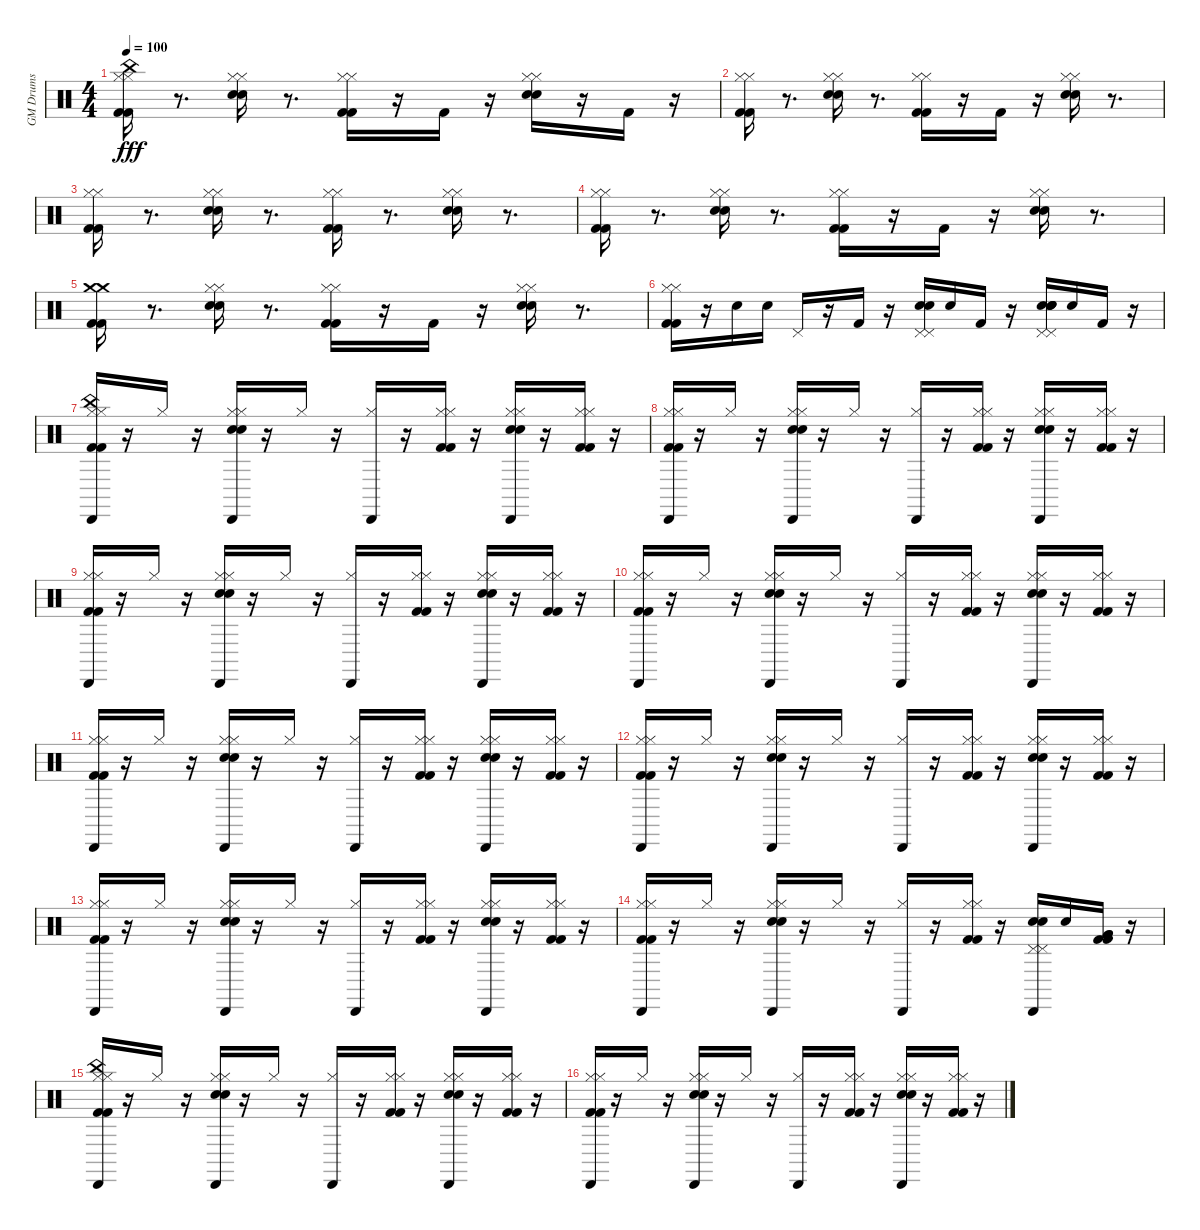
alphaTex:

\track ("GM Drums" "GM Drums") {instrument percussion}
\staff {score}
\articulation defaults
\ts (4 4)
\tempo 100
\clef neutral
\ks c
("Kick (hit) 2" "Kick (hit) 2" "Hi-Hat (closed)" "Hi-Hat (closed)" "China (hit)").16{dy fff} r.8{d} ("Snare (hit) 2" "Snare (hit) 2" "Hi-Hat (closed)" "Hi-Hat (closed)").16 r.8{d} ("Kick (hit) 2" "Kick (hit) 2" "Hi-Hat (closed)" "Hi-Hat (closed)").16 r.16 "Kick (hit) 2".16 r.16 ("Snare (hit) 2" "Snare (hit) 2" "Hi-Hat (closed)" "Hi-Hat (closed)").16 r.16 "Kick (hit) 2".16 r.16 |
("Kick (hit) 2" "Kick (hit) 2" "Hi-Hat (closed)" "Hi-Hat (closed)").16 r.8{d} ("Snare (hit) 2" "Snare (hit) 2" "Hi-Hat (closed)" "Hi-Hat (closed)").16 r.8{d} ("Kick (hit) 2" "Kick (hit) 2" "Hi-Hat (closed)" "Hi-Hat (closed)").16 r.16 "Kick (hit) 2".16 r.16 ("Snare (hit) 2" "Snare (hit) 2" "Hi-Hat (closed)" "Hi-Hat (closed)").16 r.8{d} |
("Kick (hit) 2" "Kick (hit) 2" "Hi-Hat (closed)" "Hi-Hat (closed)").16 r.8{d} ("Snare (hit) 2" "Snare (hit) 2" "Hi-Hat (closed)" "Hi-Hat (closed)").16 r.8{d} ("Kick (hit) 2" "Kick (hit) 2" "Hi-Hat (closed)" "Hi-Hat (closed)").16 r.8{d} ("Snare (hit) 2" "Snare (hit) 2" "Hi-Hat (closed)" "Hi-Hat (closed)").16 r.8{d} |
("Kick (hit) 2" "Kick (hit) 2" "Hi-Hat (closed)" "Hi-Hat (closed)").16 r.8{d} ("Snare (hit) 2" "Snare (hit) 2" "Hi-Hat (closed)" "Hi-Hat (closed)").16 r.8{d} ("Kick (hit) 2" "Kick (hit) 2" "Hi-Hat (closed)" "Hi-Hat (closed)").16 r.16 "Kick (hit) 2".16 r.16 ("Snare (hit) 2" "Snare (hit) 2" "Hi-Hat (closed)" "Hi-Hat (closed)").16 r.8{d} |
("Kick (hit) 2" "Kick (hit) 2" "Crash medium (hit)" "Crash medium (hit)").16 r.8{d} ("Snare (hit) 2" "Snare (hit) 2" "Hi-Hat (closed)" "Hi-Hat (closed)").16 r.8{d} ("Kick (hit) 2" "Kick (hit) 2" "Hi-Hat (closed)" "Hi-Hat (closed)").16 r.16 "Kick (hit) 2".16 r.16 ("Snare (hit) 2" "Snare (hit) 2" "Hi-Hat (closed)" "Hi-Hat (closed)").16 r.8{d} |
("Kick (hit) 2" "Kick (hit) 2" "Hi-Hat (closed)" "Hi-Hat (closed)").16 r.16 "Snare (hit) 2".16 "Snare (hit) 2".16 "Pedal Hi-Hat (hit)".16 r.16 "Kick (hit) 2".16 r.16 ("Snare (hit) 2" "Snare (hit) 2" "Pedal Hi-Hat (hit)" "Pedal Hi-Hat (hit)").16 "Snare (hit) 2".16 "Kick (hit) 2".16 r.16 ("Metronome (bell)" "Metronome (bell)" "Snare (hit) 2" "Snare (hit) 2" "Pedal Hi-Hat (hit)" "Pedal Hi-Hat (hit)").16 "Snare (hit) 2".16 "Kick (hit) 2".16 r.16 |
("Kick (hit) 2" "Kick (hit) 2" "Hi-Hat (closed)" "Hi-Hat (closed)" "China (hit)" "Cabasa (hit)").16 r.16 "Hi-Hat (closed)".16 r.16 ("Snare (hit) 2" "Snare (hit) 2" "Hi-Hat (closed)" "Hi-Hat (closed)" "Cabasa (hit)").16 r.16 "Hi-Hat (closed)".16 r.16 ("Hi-Hat (closed)" "Cabasa (hit)").16 r.16 ("Kick (hit) 2" "Kick (hit) 2" "Hi-Hat (closed)" "Hi-Hat (closed)").16 r.16 ("Snare (hit) 2" "Snare (hit) 2" "Hi-Hat (closed)" "Hi-Hat (closed)" "Cabasa (hit)").16 r.16 ("Kick (hit) 2" "Kick (hit) 2" "Hi-Hat (closed)" "Hi-Hat (closed)").16 r.16 |
("Kick (hit) 2" "Kick (hit) 2" "Hi-Hat (closed)" "Hi-Hat (closed)" "Cabasa (hit)").16 r.16 "Hi-Hat (closed)".16 r.16 ("Snare (hit) 2" "Snare (hit) 2" "Hi-Hat (closed)" "Hi-Hat (closed)" "Cabasa (hit)").16 r.16 "Hi-Hat (closed)".16 r.16 ("Hi-Hat (closed)" "Cabasa (hit)").16 r.16 ("Kick (hit) 2" "Kick (hit) 2" "Hi-Hat (closed)" "Hi-Hat (closed)").16 r.16 ("Snare (hit) 2" "Snare (hit) 2" "Hi-Hat (closed)" "Hi-Hat (closed)" "Cabasa (hit)").16 r.16 ("Kick (hit) 2" "Kick (hit) 2" "Hi-Hat (closed)" "Hi-Hat (closed)").16 r.16 |
("Kick (hit) 2" "Kick (hit) 2" "Hi-Hat (closed)" "Hi-Hat (closed)" "Cabasa (hit)").16 r.16 "Hi-Hat (closed)".16 r.16 ("Snare (hit) 2" "Snare (hit) 2" "Hi-Hat (closed)" "Hi-Hat (closed)" "Cabasa (hit)").16 r.16 "Hi-Hat (closed)".16 r.16 ("Hi-Hat (closed)" "Cabasa (hit)").16 r.16 ("Kick (hit) 2" "Kick (hit) 2" "Hi-Hat (closed)" "Hi-Hat (closed)").16 r.16 ("Snare (hit) 2" "Snare (hit) 2" "Hi-Hat (closed)" "Hi-Hat (closed)" "Cabasa (hit)").16 r.16 ("Kick (hit) 2" "Kick (hit) 2" "Hi-Hat (closed)" "Hi-Hat (closed)").16 r.16 |
("Kick (hit) 2" "Kick (hit) 2" "Hi-Hat (closed)" "Hi-Hat (closed)" "Cabasa (hit)").16 r.16 "Hi-Hat (closed)".16 r.16 ("Snare (hit) 2" "Snare (hit) 2" "Hi-Hat (closed)" "Hi-Hat (closed)" "Cabasa (hit)").16 r.16 "Hi-Hat (closed)".16 r.16 ("Hi-Hat (closed)" "Cabasa (hit)").16 r.16 ("Kick (hit) 2" "Kick (hit) 2" "Hi-Hat (closed)" "Hi-Hat (closed)").16 r.16 ("Snare (hit) 2" "Snare (hit) 2" "Hi-Hat (closed)" "Hi-Hat (closed)" "Cabasa (hit)").16 r.16 ("Kick (hit) 2" "Kick (hit) 2" "Hi-Hat (closed)" "Hi-Hat (closed)").16 r.16 |
("Kick (hit) 2" "Kick (hit) 2" "Hi-Hat (closed)" "Hi-Hat (closed)" "Cabasa (hit)").16 r.16 "Hi-Hat (closed)".16 r.16 ("Snare (hit) 2" "Snare (hit) 2" "Hi-Hat (closed)" "Hi-Hat (closed)" "Cabasa (hit)").16 r.16 "Hi-Hat (closed)".16 r.16 ("Hi-Hat (closed)" "Cabasa (hit)").16 r.16 ("Kick (hit) 2" "Kick (hit) 2" "Hi-Hat (closed)" "Hi-Hat (closed)").16 r.16 ("Snare (hit) 2" "Snare (hit) 2" "Hi-Hat (closed)" "Hi-Hat (closed)" "Cabasa (hit)").16 r.16 ("Kick (hit) 2" "Kick (hit) 2" "Hi-Hat (closed)" "Hi-Hat (closed)").16 r.16 |
("Kick (hit) 2" "Kick (hit) 2" "Hi-Hat (closed)" "Hi-Hat (closed)" "Cabasa (hit)").16 r.16 "Hi-Hat (closed)".16 r.16 ("Snare (hit) 2" "Snare (hit) 2" "Hi-Hat (closed)" "Hi-Hat (closed)" "Cabasa (hit)").16 r.16 "Hi-Hat (closed)".16 r.16 ("Hi-Hat (closed)" "Cabasa (hit)").16 r.16 ("Kick (hit) 2" "Kick (hit) 2" "Hi-Hat (closed)" "Hi-Hat (closed)").16 r.16 ("Snare (hit) 2" "Snare (hit) 2" "Hi-Hat (closed)" "Hi-Hat (closed)" "Cabasa (hit)").16 r.16 ("Kick (hit) 2" "Kick (hit) 2" "Hi-Hat (closed)" "Hi-Hat (closed)").16 r.16 |
("Kick (hit) 2" "Kick (hit) 2" "Hi-Hat (closed)" "Hi-Hat (closed)" "Cabasa (hit)").16 r.16 "Hi-Hat (closed)".16 r.16 ("Snare (hit) 2" "Snare (hit) 2" "Hi-Hat (closed)" "Hi-Hat (closed)" "Cabasa (hit)").16 r.16 "Hi-Hat (closed)".16 r.16 ("Hi-Hat (closed)" "Cabasa (hit)").16 r.16 ("Kick (hit) 2" "Kick (hit) 2" "Hi-Hat (closed)" "Hi-Hat (closed)").16 r.16 ("Snare (hit) 2" "Snare (hit) 2" "Hi-Hat (closed)" "Hi-Hat (closed)" "Cabasa (hit)").16 r.16 ("Kick (hit) 2" "Kick (hit) 2" "Hi-Hat (closed)" "Hi-Hat (closed)").16 r.16 |
("Kick (hit) 2" "Kick (hit) 2" "Hi-Hat (closed)" "Hi-Hat (closed)" "Cabasa (hit)").16 r.16 "Hi-Hat (closed)".16 r.16 ("Snare (hit) 2" "Snare (hit) 2" "Hi-Hat (closed)" "Hi-Hat (closed)" "Cabasa (hit)").16 r.16 "Hi-Hat (closed)".16 r.16 ("Hi-Hat (closed)" "Cabasa (hit)").16 r.16 ("Kick (hit) 2" "Kick (hit) 2" "Hi-Hat (closed)" "Hi-Hat (closed)").16 r.16 ("Snare (hit) 2" "Snare (hit) 2" "Pedal Hi-Hat (hit)" "Pedal Hi-Hat (hit)" "Cabasa (hit)").16 "Snare (hit) 2".16 ("Kick (hit) 2" "Kick (hit) 2" "Very Low Tom (hit)" "Very Low Tom (hit)").16 r.16 |
("Kick (hit) 2" "Kick (hit) 2" "Hi-Hat (closed)" "Hi-Hat (closed)" "China (hit)" "Cabasa (hit)").16 r.16 "Hi-Hat (closed)".16 r.16 ("Snare (hit) 2" "Snare (hit) 2" "Hi-Hat (closed)" "Hi-Hat (closed)" "Cabasa (hit)").16 r.16 "Hi-Hat (closed)".16 r.16 ("Hi-Hat (closed)" "Cabasa (hit)").16 r.16 ("Kick (hit) 2" "Kick (hit) 2" "Hi-Hat (closed)" "Hi-Hat (closed)").16 r.16 ("Snare (hit) 2" "Snare (hit) 2" "Hi-Hat (closed)" "Hi-Hat (closed)" "Cabasa (hit)").16 r.16 ("Kick (hit) 2" "Kick (hit) 2" "Hi-Hat (closed)" "Hi-Hat (closed)").16 r.16 |
("Kick (hit) 2" "Kick (hit) 2" "Hi-Hat (closed)" "Hi-Hat (closed)" "Cabasa (hit)").16 r.16 "Hi-Hat (closed)".16 r.16 ("Snare (hit) 2" "Snare (hit) 2" "Hi-Hat (closed)" "Hi-Hat (closed)" "Cabasa (hit)").16 r.16 "Hi-Hat (closed)".16 r.16 ("Hi-Hat (closed)" "Cabasa (hit)").16 r.16 ("Kick (hit) 2" "Kick (hit) 2" "Hi-Hat (closed)" "Hi-Hat (closed)").16 r.16 ("Snare (hit) 2" "Snare (hit) 2" "Hi-Hat (closed)" "Hi-Hat (closed)" "Cabasa (hit)").16 r.16 ("Kick (hit) 2" "Kick (hit) 2" "Hi-Hat (closed)" "Hi-Hat (closed)").16 r.16
